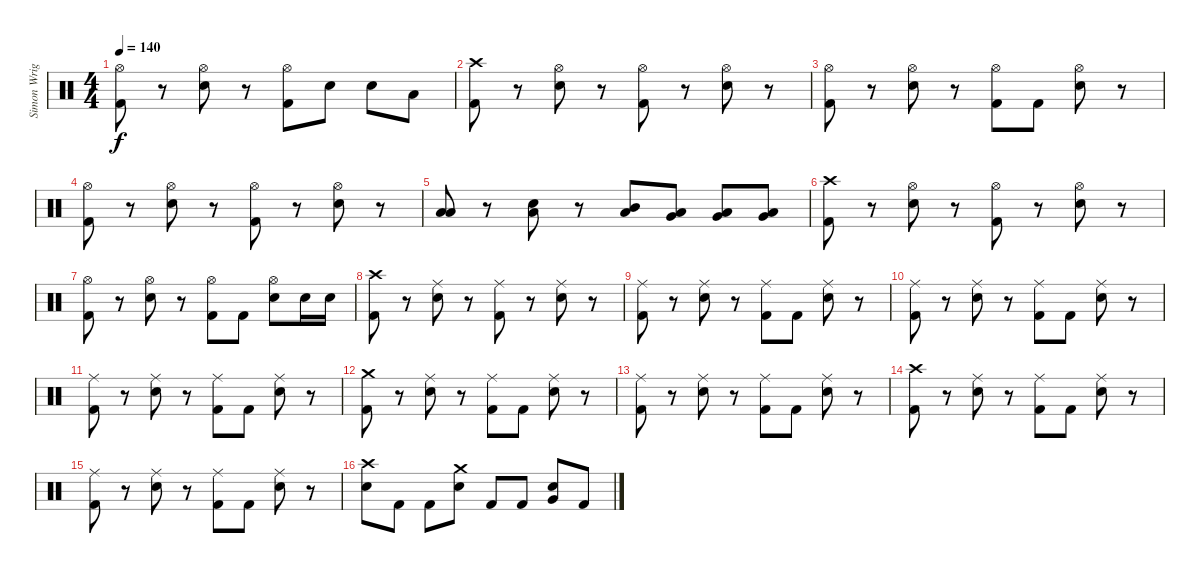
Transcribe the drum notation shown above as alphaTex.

\track ("Simon Wright" "Simon Wrig") {instrument percussion}
\staff {score}
\articulation defaults
\ts (4 4)
\tempo 140
\clef neutral
\ks c
("Hi-Hat (open)" "Kick (hit) 2").8{dy f} r.8 ("Hi-Hat (open)" "Snare (hit) 2").8 r.8 ("Hi-Hat (open)" "Kick (hit) 2").8 "Snare (hit) 2".8 "Snare (hit) 2".8 "Low Floor Tom (hit)".8 |
("Crash high (hit)" "Kick (hit) 2").8 r.8 ("Hi-Hat (open)" "Snare (hit) 2").8 r.8 ("Hi-Hat (open)" "Kick (hit) 2").8 r.8 ("Hi-Hat (open)" "Snare (hit) 2").8 r.8 |
("Hi-Hat (open)" "Kick (hit) 2").8 r.8 ("Hi-Hat (open)" "Snare (hit) 2").8 r.8 ("Hi-Hat (open)" "Kick (hit) 2").8 "Kick (hit) 2".8 ("Hi-Hat (open)" "Snare (hit) 2").8 r.8 |
("Hi-Hat (open)" "Kick (hit) 2").8 r.8 ("Hi-Hat (open)" "Snare (hit) 2").8 r.8 ("Hi-Hat (open)" "Kick (hit) 2").8 r.8 ("Hi-Hat (open)" "Snare (hit) 2").8 r.8 |
("Low Tom (hit)" "Low Floor Tom (hit)").8 r.8 ("Low Tom (hit)" "Snare (hit) 2").8 r.8 ("Mid Tom (hit)" "Low Tom (hit)").8 ("Low Tom (hit)" "Very Low Tom (hit)").8 ("Low Tom (hit)" "Very Low Tom (hit)").8 ("Very Low Tom (hit)" "Low Floor Tom (hit)").8 |
("Crash high (hit)" "Kick (hit) 2").8 r.8 ("Hi-Hat (open)" "Snare (hit) 2").8 r.8 ("Hi-Hat (open)" "Kick (hit) 2").8 r.8 ("Hi-Hat (open)" "Snare (hit) 2").8 r.8 |
("Hi-Hat (open)" "Kick (hit) 2").8 r.8 ("Hi-Hat (open)" "Snare (hit) 2").8 r.8 ("Hi-Hat (open)" "Kick (hit) 2").8 "Kick (hit) 2".8 ("Hi-Hat (open)" "Snare (hit) 2").8 "Snare (hit) 2".16 "Snare (hit) 2".16 |
("Crash high (hit)" "Kick (hit) 2").8 r.8 ("Ride (middle)" "Snare (hit) 2").8 r.8 ("Ride (middle)" "Kick (hit) 2").8 r.8 ("Ride (middle)" "Snare (hit) 2").8 r.8 |
("Ride (middle)" "Kick (hit) 2").8 r.8 ("Ride (middle)" "Snare (hit) 2").8 r.8 ("Ride (middle)" "Kick (hit) 2").8 "Kick (hit) 2".8 ("Ride (middle)" "Snare (hit) 2").8 r.8 |
("Ride (middle)" "Kick (hit) 2").8 r.8 ("Ride (middle)" "Snare (hit) 2").8 r.8 ("Ride (middle)" "Kick (hit) 2").8 "Kick (hit) 2".8 ("Ride (middle)" "Snare (hit) 2").8 r.8 |
("Ride (middle)" "Kick (hit) 2").8 r.8 ("Ride (middle)" "Snare (hit) 2").8 r.8 ("Ride (middle)" "Kick (hit) 2").8 "Kick (hit) 2".8 ("Ride (middle)" "Snare (hit) 2").8 r.8 |
("Crash medium (hit)" "Kick (hit) 2").8 r.8 ("Ride (middle)" "Snare (hit) 2").8 r.8 ("Ride (middle)" "Kick (hit) 2").8 "Kick (hit) 2".8 ("Ride (middle)" "Snare (hit) 2").8 r.8 |
("Ride (middle)" "Kick (hit) 2").8 r.8 ("Ride (middle)" "Snare (hit) 2").8 r.8 ("Ride (middle)" "Kick (hit) 2").8 "Kick (hit) 2".8 ("Ride (middle)" "Snare (hit) 2").8 r.8 |
("Crash high (hit)" "Kick (hit) 2").8 r.8 ("Ride (middle)" "Snare (hit) 2").8 r.8 ("Ride (middle)" "Kick (hit) 2").8 "Kick (hit) 2".8 ("Ride (middle)" "Snare (hit) 2").8 r.8 |
("Ride (middle)" "Kick (hit) 2").8 r.8 ("Ride (middle)" "Snare (hit) 2").8 r.8 ("Ride (middle)" "Kick (hit) 2").8 "Kick (hit) 2".8 ("Ride (middle)" "Snare (hit) 2").8 r.8 |
("Crash high (hit)" "Snare (hit) 2").8 "Kick (hit) 2".8 "Kick (hit) 2".8 ("Crash medium (hit)" "Snare (hit) 2").8 "Kick (hit) 2".8 "Kick (hit) 2".8 ("Very Low Tom (hit)" "Snare (hit) 2").8 "Kick (hit) 2".8
